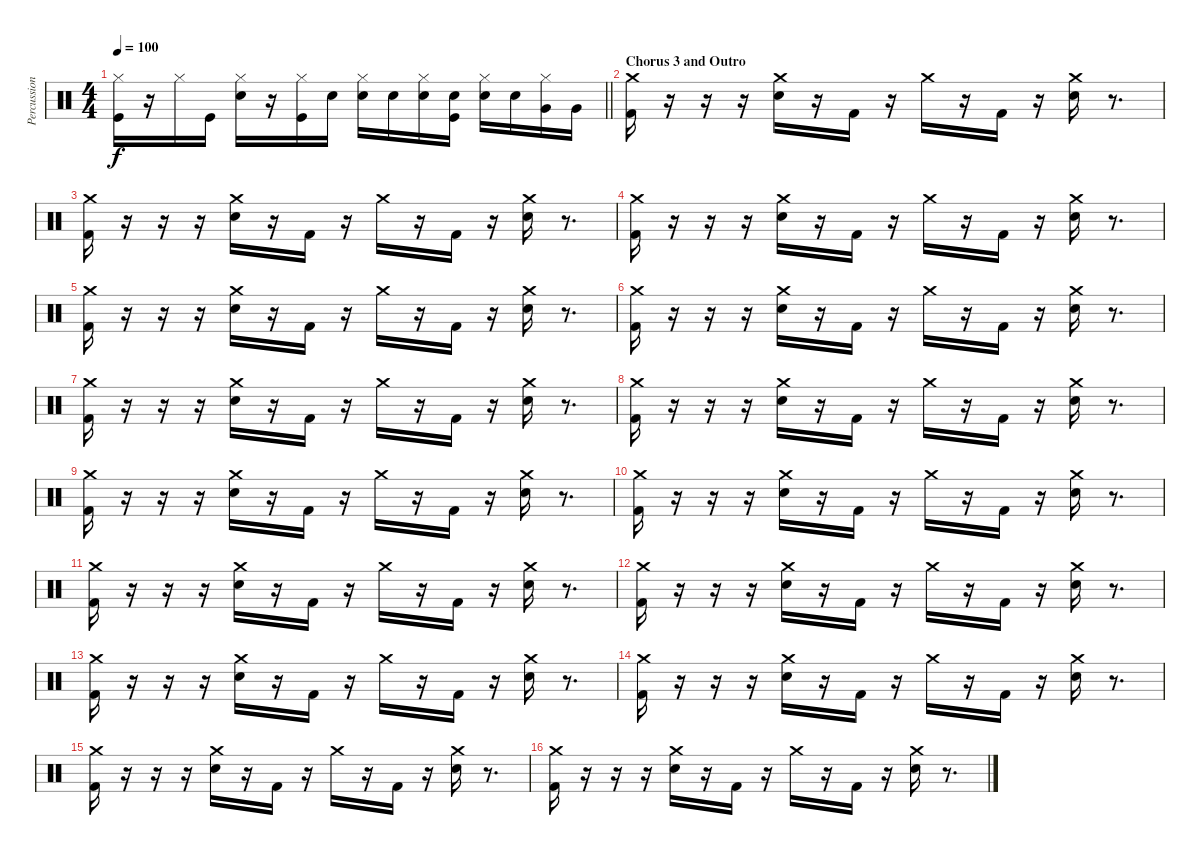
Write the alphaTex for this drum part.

\track ("Percussion (Chad Smith)" "Percussion") {instrument percussion}
\staff {score}
\articulation defaults
\ts (4 4)
\tempo 100
\clef neutral
\barLineRight lightlight
\ks c
("Hi-Hat (closed)" "Kick (hit)").16{dy f} r.16 "Hi-Hat (closed)".16 "Kick (hit)".16 ("Hi-Hat (closed)" "Snare (hit) 2").16 r.16 ("Hi-Hat (closed)" "Kick (hit)").16 "Snare (hit) 2".16 ("Hi-Hat (closed)" "Snare (hit) 2").16 "Snare (hit) 2".16 ("Hi-Hat (closed)" "Snare (hit) 2").16 ("Snare (hit) 2" "Kick (hit)").16 ("Hi-Hat (closed)" "Snare (hit) 2").16 "Snare (hit) 2".16 ("Hi-Hat (closed)" "Very Low Tom (hit)").16 "Very Low Tom (hit)".16 |
\section ("" "Chorus 3 and Outro")
("Crash medium (hit)" "Kick (hit) 2").16 r.16 r.16 r.16 ("Crash medium (hit)" "Electric Snare (hit)").16 r.16 "Kick (hit) 2".16 r.16 "Crash medium (hit)".16 r.16 "Kick (hit) 2".16 r.16 ("Crash medium (hit)" "Electric Snare (hit)").16 r.8{d} |
("Crash medium (hit)" "Kick (hit) 2").16 r.16 r.16 r.16 ("Crash medium (hit)" "Electric Snare (hit)").16 r.16 "Kick (hit) 2".16 r.16 "Crash medium (hit)".16 r.16 "Kick (hit) 2".16 r.16 ("Crash medium (hit)" "Electric Snare (hit)").16 r.8{d} |
("Crash medium (hit)" "Kick (hit) 2").16 r.16 r.16 r.16 ("Crash medium (hit)" "Electric Snare (hit)").16 r.16 "Kick (hit) 2".16 r.16 "Crash medium (hit)".16 r.16 "Kick (hit) 2".16 r.16 ("Crash medium (hit)" "Electric Snare (hit)").16 r.8{d} |
("Crash medium (hit)" "Kick (hit) 2").16 r.16 r.16 r.16 ("Crash medium (hit)" "Electric Snare (hit)").16 r.16 "Kick (hit) 2".16 r.16 "Crash medium (hit)".16 r.16 "Kick (hit) 2".16 r.16 ("Crash medium (hit)" "Electric Snare (hit)").16 r.8{d} |
("Crash medium (hit)" "Kick (hit) 2").16 r.16 r.16 r.16 ("Crash medium (hit)" "Electric Snare (hit)").16 r.16 "Kick (hit) 2".16 r.16 "Crash medium (hit)".16 r.16 "Kick (hit) 2".16 r.16 ("Crash medium (hit)" "Electric Snare (hit)").16 r.8{d} |
("Crash medium (hit)" "Kick (hit) 2").16 r.16 r.16 r.16 ("Crash medium (hit)" "Electric Snare (hit)").16 r.16 "Kick (hit) 2".16 r.16 "Crash medium (hit)".16 r.16 "Kick (hit) 2".16 r.16 ("Crash medium (hit)" "Electric Snare (hit)").16 r.8{d} |
("Crash medium (hit)" "Kick (hit) 2").16 r.16 r.16 r.16 ("Crash medium (hit)" "Electric Snare (hit)").16 r.16 "Kick (hit) 2".16 r.16 "Crash medium (hit)".16 r.16 "Kick (hit) 2".16 r.16 ("Crash medium (hit)" "Electric Snare (hit)").16 r.8{d} |
("Crash medium (hit)" "Kick (hit) 2").16 r.16 r.16 r.16 ("Crash medium (hit)" "Electric Snare (hit)").16 r.16 "Kick (hit) 2".16 r.16 "Crash medium (hit)".16 r.16 "Kick (hit) 2".16 r.16 ("Crash medium (hit)" "Electric Snare (hit)").16 r.8{d} |
("Crash medium (hit)" "Kick (hit) 2").16 r.16 r.16 r.16 ("Crash medium (hit)" "Electric Snare (hit)").16 r.16 "Kick (hit) 2".16 r.16 "Crash medium (hit)".16 r.16 "Kick (hit) 2".16 r.16 ("Crash medium (hit)" "Electric Snare (hit)").16 r.8{d} |
("Crash medium (hit)" "Kick (hit) 2").16 r.16 r.16 r.16 ("Crash medium (hit)" "Electric Snare (hit)").16 r.16 "Kick (hit) 2".16 r.16 "Crash medium (hit)".16 r.16 "Kick (hit) 2".16 r.16 ("Crash medium (hit)" "Electric Snare (hit)").16 r.8{d} |
("Crash medium (hit)" "Kick (hit) 2").16 r.16 r.16 r.16 ("Crash medium (hit)" "Electric Snare (hit)").16 r.16 "Kick (hit) 2".16 r.16 "Crash medium (hit)".16 r.16 "Kick (hit) 2".16 r.16 ("Crash medium (hit)" "Electric Snare (hit)").16 r.8{d} |
("Crash medium (hit)" "Kick (hit) 2").16 r.16 r.16 r.16 ("Crash medium (hit)" "Electric Snare (hit)").16 r.16 "Kick (hit) 2".16 r.16 "Crash medium (hit)".16 r.16 "Kick (hit) 2".16 r.16 ("Crash medium (hit)" "Electric Snare (hit)").16 r.8{d} |
("Crash medium (hit)" "Kick (hit) 2").16 r.16 r.16 r.16 ("Crash medium (hit)" "Electric Snare (hit)").16 r.16 "Kick (hit) 2".16 r.16 "Crash medium (hit)".16 r.16 "Kick (hit) 2".16 r.16 ("Crash medium (hit)" "Electric Snare (hit)").16 r.8{d} |
("Crash medium (hit)" "Kick (hit) 2").16 r.16 r.16 r.16 ("Crash medium (hit)" "Electric Snare (hit)").16 r.16 "Kick (hit) 2".16 r.16 "Crash medium (hit)".16 r.16 "Kick (hit) 2".16 r.16 ("Crash medium (hit)" "Electric Snare (hit)").16 r.8{d} |
("Crash medium (hit)" "Kick (hit) 2").16 r.16 r.16 r.16 ("Crash medium (hit)" "Electric Snare (hit)").16 r.16 "Kick (hit) 2".16 r.16 "Crash medium (hit)".16 r.16 "Kick (hit) 2".16 r.16 ("Crash medium (hit)" "Electric Snare (hit)").16 r.8{d}
